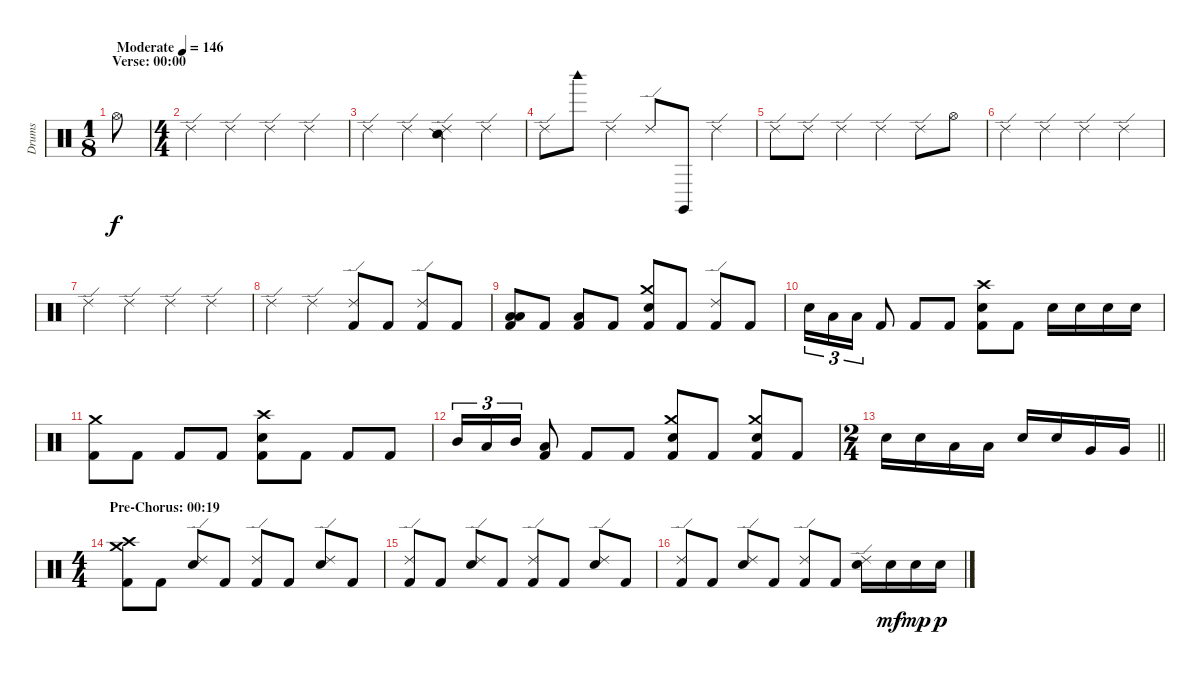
\track ("Drums" "Drums") {instrument percussion}
\staff {score}
\articulation defaults
\ts (1 8)
\section ("" "Verse: 00:00")
\tempo (146 "Moderate")
\clef neutral
\ks c "Hi-Hat (open)".8{dy f}
|
\ts (4 4)
"Ride (edge) 2".4 "Ride (edge) 2".4 "Ride (edge) 2".4 "Ride (edge) 2".4 |
"Ride (edge) 2".4 "Ride (edge) 2".4 ("Ride (edge) 2" "Snare (side stick) 2").4 "Ride (edge) 2".4 |
"Ride (edge) 2".8 "Woodblock high (hit)".8 "Ride (edge) 2".4 "Ride (edge) 2".8 "Claves (hit)".8 "Ride (edge) 2".4 |
"Ride (edge) 2".8 "Ride (edge) 2".8 "Ride (edge) 2".4 "Ride (edge) 2".4 "Ride (edge) 2".8 "Hi-Hat (open)".8 |
"Ride (edge) 2".4 "Ride (edge) 2".4 "Ride (edge) 2".4 "Ride (edge) 2".4 |
"Ride (edge) 2".4 "Ride (edge) 2".4 "Ride (edge) 2".4 "Ride (edge) 2".4 |
"Ride (edge) 2".4 "Ride (edge) 2".4 ("Ride (edge) 2" "Kick (hit) 2").8 "Kick (hit) 2".8 ("Ride (edge) 2" "Kick (hit) 2").8 "Kick (hit) 2".8 |
("Low Tom (hit)" "Low Floor Tom (hit)" "Kick (hit) 2").8 "Kick (hit) 2".8 ("Low Floor Tom (hit)" "Kick (hit) 2").8 "Kick (hit) 2".8 ("Crash medium (hit)" "Electric Snare (hit)" "Kick (hit) 2").8 "Kick (hit) 2".8 ("Ride (edge) 2" "Kick (hit) 2").8 "Kick (hit) 2".8 |
"Electric Snare (hit)".16{tu (3 2)} "Low Floor Tom (hit)".16{tu (3 2)} "Low Tom (hit)".16{tu (3 2)} "Kick (hit) 2".8 "Kick (hit) 2".8 "Kick (hit) 2".8 ("Crash high (hit)" "Electric Snare (hit)" "Kick (hit) 2").8 "Kick (hit) 2".8 "Electric Snare (hit)".16 "Electric Snare (hit)".16 "Electric Snare (hit)".16 "Electric Snare (hit)".16 |
("Crash medium (hit)" "Kick (hit) 2").8 "Kick (hit) 2".8 "Kick (hit) 2".8 "Kick (hit) 2".8 ("Crash high (hit)" "Electric Snare (hit)" "Kick (hit) 2").8 "Kick (hit) 2".8 "Kick (hit) 2".8 "Kick (hit) 2".8 |
"Mid Tom (hit)".16{tu (3 2)} "Low Tom (hit)".16{tu (3 2)} "Mid Tom (hit)".16{tu (3 2)} ("Low Floor Tom (hit)" "Kick (hit) 2").8 "Kick (hit) 2".8 "Kick (hit) 2".8 ("Crash medium (hit)" "Electric Snare (hit)" "Kick (hit) 2").8 "Kick (hit) 2".8 ("Crash medium (hit)" "Electric Snare (hit)" "Kick (hit) 2").8 "Kick (hit) 2".8 |
\ts (2 4)
\barLineRight lightlight "Electric Snare (hit)".16 "Electric Snare (hit)".16 "Low Tom (hit)".16 "Low Tom (hit)".16 "Electric Snare (hit)".16 "Electric Snare (hit)".16 "Very Low Tom (hit)".16 "Very Low Tom (hit)".16
|
\ts (4 4)
\section ("" "Pre-Chorus: 00:19")
("Crash high (hit)" "Crash medium (hit)" "Kick (hit) 2").8 "Kick (hit) 2".8 ("Ride (edge) 2" "Electric Snare (hit)").8 "Kick (hit) 2".8 ("Ride (edge) 2" "Kick (hit) 2").8 "Kick (hit) 2".8 ("Ride (edge) 2" "Electric Snare (hit)").8 "Kick (hit) 2".8 |
("Ride (edge) 2" "Kick (hit) 2").8 "Kick (hit) 2".8 ("Ride (edge) 2" "Electric Snare (hit)").8 "Kick (hit) 2".8 ("Ride (edge) 2" "Kick (hit) 2").8 "Kick (hit) 2".8 ("Ride (edge) 2" "Electric Snare (hit)").8 "Kick (hit) 2".8 |
("Ride (edge) 2" "Kick (hit) 2").8 "Kick (hit) 2".8 ("Ride (edge) 2" "Electric Snare (hit)").8 "Kick (hit) 2".8 ("Ride (edge) 2" "Kick (hit) 2").8 "Kick (hit) 2".8 ("Ride (edge) 2" "Electric Snare (hit)").16 "Electric Snare (hit)".16{dy mf} "Electric Snare (hit)".16{dy mp} "Electric Snare (hit)".16{dy p}
